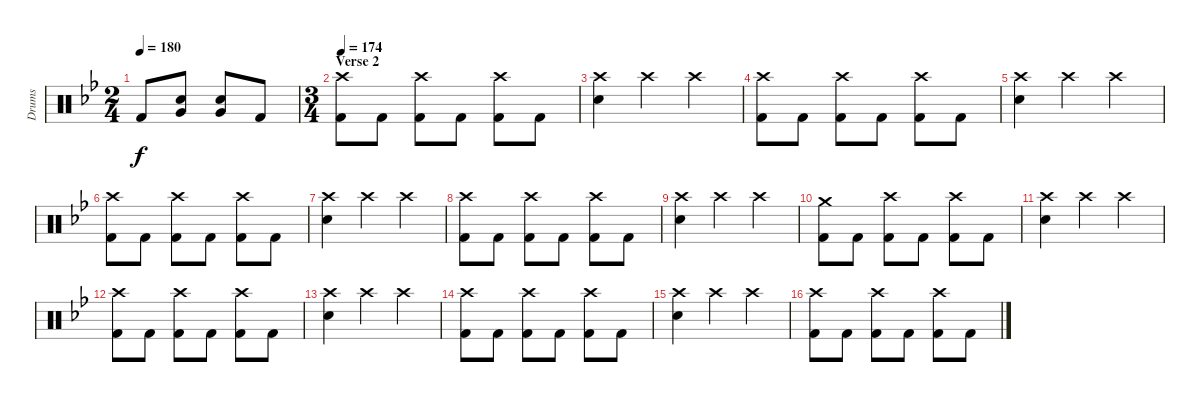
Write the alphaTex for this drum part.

\bracketExtendMode groupsimilarinstruments
\track ("Drumkit" "Drums") {instrument percussion}
\staff {score}
\articulation defaults
\ts (2 4)
\beaming (8 2 2)
\tempo 180
\clef neutral
\ks bb "Kick (hit) 2"{acc forcenatural}.8{dy f}
("Snare (hit) 2"{acc forcenatural} "Very Low Tom (hit)"{acc forcenatural}).8 ("Snare (hit) 2"{acc forcenatural} "Very Low Tom (hit)"{acc forcenatural}).8 "Kick (hit) 2"{acc forcenatural}.8 |
\ts (3 4)
\beaming (8 2 2 2)
\section ("" "Verse 2")
\tempo 174
("Crash high (hit)"{acc forcenatural} "Kick (hit) 2"{acc forcenatural}).8 "Kick (hit) 2"{acc forcenatural}.8 ("Crash high (hit)"{acc forcenatural} "Kick (hit) 2"{acc forcenatural}).8 "Kick (hit) 2"{acc forcenatural}.8 ("Crash high (hit)"{acc forcenatural} "Kick (hit) 2"{acc forcenatural}).8 "Kick (hit) 2"{acc forcenatural}.8 |
("Crash high (hit)"{acc forcenatural} "Snare (hit) 2"{acc forcenatural}).4 "Crash high (hit)"{acc forcenatural}.4 "Crash high (hit)"{acc forcenatural}.4 |
("Crash high (hit)"{acc forcenatural} "Kick (hit) 2"{acc forcenatural}).8 "Kick (hit) 2"{acc forcenatural}.8 ("Crash high (hit)"{acc forcenatural} "Kick (hit) 2"{acc forcenatural}).8 "Kick (hit) 2"{acc forcenatural}.8 ("Crash high (hit)"{acc forcenatural} "Kick (hit) 2"{acc forcenatural}).8 "Kick (hit) 2"{acc forcenatural}.8 |
("Crash high (hit)"{acc forcenatural} "Snare (hit) 2"{acc forcenatural}).4 "Crash high (hit)"{acc forcenatural}.4 "Crash high (hit)"{acc forcenatural}.4 |
("Crash high (hit)"{acc forcenatural} "Kick (hit) 2"{acc forcenatural}).8 "Kick (hit) 2"{acc forcenatural}.8 ("Crash high (hit)"{acc forcenatural} "Kick (hit) 2"{acc forcenatural}).8 "Kick (hit) 2"{acc forcenatural}.8 ("Crash high (hit)"{acc forcenatural} "Kick (hit) 2"{acc forcenatural}).8 "Kick (hit) 2"{acc forcenatural}.8 |
("Crash high (hit)"{acc forcenatural} "Snare (hit) 2"{acc forcenatural}).4 "Crash high (hit)"{acc forcenatural}.4 "Crash high (hit)"{acc forcenatural}.4 |
("Crash high (hit)"{acc forcenatural} "Kick (hit) 2"{acc forcenatural}).8 "Kick (hit) 2"{acc forcenatural}.8 ("Crash high (hit)"{acc forcenatural} "Kick (hit) 2"{acc forcenatural}).8 "Kick (hit) 2"{acc forcenatural}.8 ("Crash high (hit)"{acc forcenatural} "Kick (hit) 2"{acc forcenatural}).8 "Kick (hit) 2"{acc forcenatural}.8 |
("Crash high (hit)"{acc forcenatural} "Snare (hit) 2"{acc forcenatural}).4 "Crash high (hit)"{acc forcenatural}.4 "Crash high (hit)"{acc forcenatural}.4 |
("Crash medium (hit)"{acc forcenatural} "Kick (hit) 2"{acc forcenatural}).8 "Kick (hit) 2"{acc forcenatural}.8 ("Crash high (hit)"{acc forcenatural} "Kick (hit) 2"{acc forcenatural}).8 "Kick (hit) 2"{acc forcenatural}.8 ("Crash high (hit)"{acc forcenatural} "Kick (hit) 2"{acc forcenatural}).8 "Kick (hit) 2"{acc forcenatural}.8 |
("Crash high (hit)"{acc forcenatural} "Snare (hit) 2"{acc forcenatural}).4 "Crash high (hit)"{acc forcenatural}.4 "Crash high (hit)"{acc forcenatural}.4 |
("Crash high (hit)"{acc forcenatural} "Kick (hit) 2"{acc forcenatural}).8 "Kick (hit) 2"{acc forcenatural}.8 ("Crash high (hit)"{acc forcenatural} "Kick (hit) 2"{acc forcenatural}).8 "Kick (hit) 2"{acc forcenatural}.8 ("Crash high (hit)"{acc forcenatural} "Kick (hit) 2"{acc forcenatural}).8 "Kick (hit) 2"{acc forcenatural}.8 |
("Crash high (hit)"{acc forcenatural} "Snare (hit) 2"{acc forcenatural}).4 "Crash high (hit)"{acc forcenatural}.4 "Crash high (hit)"{acc forcenatural}.4 |
("Crash high (hit)"{acc forcenatural} "Kick (hit) 2"{acc forcenatural}).8 "Kick (hit) 2"{acc forcenatural}.8 ("Crash high (hit)"{acc forcenatural} "Kick (hit) 2"{acc forcenatural}).8 "Kick (hit) 2"{acc forcenatural}.8 ("Crash high (hit)"{acc forcenatural} "Kick (hit) 2"{acc forcenatural}).8 "Kick (hit) 2"{acc forcenatural}.8 |
("Crash high (hit)"{acc forcenatural} "Snare (hit) 2"{acc forcenatural}).4 "Crash high (hit)"{acc forcenatural}.4 "Crash high (hit)"{acc forcenatural}.4 |
("Crash high (hit)"{acc forcenatural} "Kick (hit) 2"{acc forcenatural}).8 "Kick (hit) 2"{acc forcenatural}.8 ("Crash high (hit)"{acc forcenatural} "Kick (hit) 2"{acc forcenatural}).8 "Kick (hit) 2"{acc forcenatural}.8 ("Crash high (hit)"{acc forcenatural} "Kick (hit) 2"{acc forcenatural}).8 "Kick (hit) 2"{acc forcenatural}.8
